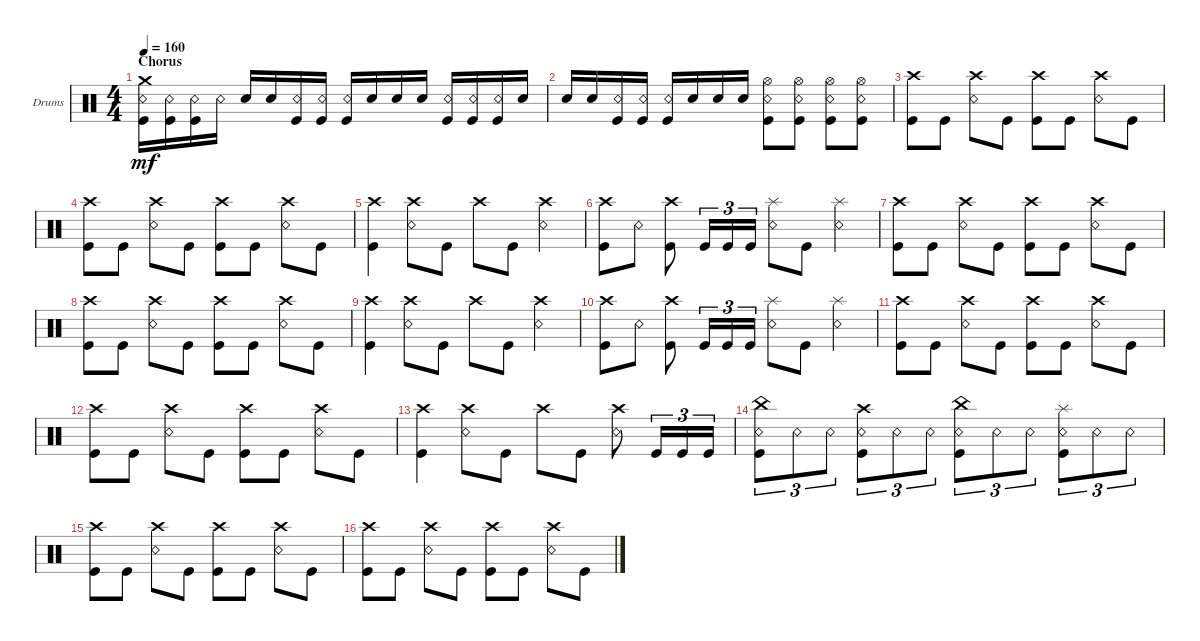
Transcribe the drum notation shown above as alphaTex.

\defaultSystemsLayout 4
\bracketExtendMode groupsimilarinstruments
\firstSystemTrackNameOrientation horizontal
\otherSystemsTrackNameOrientation horizontal
\track ("Drumkit" "Drums") {instrument percussion}
\staff {score}
\articulation defaults
\ts (4 4)
\section ("" "Chorus")
\tempo 160
\clef neutral
\ks c
("Snare (rim shot)" "Kick (hit)" "Crash medium (hit)").16{dy mf} ("Snare (rim shot)" "Kick (hit)").16 ("Snare (rim shot)" "Kick (hit)").16 "Snare (rim shot)".16 "Snare (hit) 2".16 "Snare (hit) 2".16 ("Snare (rim shot)" "Kick (hit)").16 ("Snare (rim shot)" "Kick (hit)").16 ("Snare (rim shot)" "Kick (hit)").16 "Snare (hit) 2".16 "Snare (hit) 2".16 "Snare (hit) 2".16 ("Snare (rim shot)" "Kick (hit)").16 ("Snare (rim shot)" "Kick (hit)").16 ("Snare (rim shot)" "Kick (hit)").16 "Snare (hit) 2".16 |
"Snare (hit) 2".16 "Snare (hit) 2".16 ("Snare (rim shot)" "Kick (hit)").16 ("Snare (rim shot)" "Kick (hit)").16 ("Snare (rim shot)" "Kick (hit)").16 "Snare (hit) 2".16 "Snare (hit) 2".16 "Snare (hit) 2".16 ("Snare (rim shot)" "Kick (hit)" "Hi-Hat (open)").8 ("Snare (rim shot)" "Kick (hit)" "Hi-Hat (open)").8 ("Snare (rim shot)" "Kick (hit)" "Hi-Hat (open)").8 ("Snare (rim shot)" "Kick (hit)" "Hi-Hat (open)").8 |
("Kick (hit)" "Crash high (hit)").8 "Kick (hit)".8 ("Snare (rim shot)" "Crash high (hit)").8 "Kick (hit)".8 ("Kick (hit)" "Crash high (hit)").8 "Kick (hit)".8 ("Snare (rim shot)" "Crash high (hit)").8 "Kick (hit)".8 |
("Kick (hit)" "Crash high (hit)").8 "Kick (hit)".8 ("Snare (rim shot)" "Crash high (hit)").8 "Kick (hit)".8 ("Kick (hit)" "Crash high (hit)").8 "Kick (hit)".8 ("Snare (rim shot)" "Crash high (hit)").8 "Kick (hit)".8 |
("Kick (hit)" "Crash high (hit)").4 ("Snare (rim shot)" "Crash high (hit)").8 "Kick (hit)".8 "Crash high (hit)".8 "Kick (hit)".8 ("Snare (rim shot)" "Crash high (hit)").4 |
("Kick (hit)" "Crash high (hit)").8 "Snare (rim shot)".8 ("Kick (hit)" "Crash high (hit)").8 "Kick (hit)".16{tu (3 2)} "Kick (hit)".16{tu (3 2)} "Kick (hit)".16{tu (3 2)} ("Snare (rim shot)" "Splash (hit)").8 "Kick (hit)".8 ("Snare (rim shot)" "Splash (hit)").4 |
("Kick (hit)" "Crash high (hit)").8 "Kick (hit)".8 ("Snare (rim shot)" "Crash high (hit)").8 "Kick (hit)".8 ("Kick (hit)" "Crash high (hit)").8 "Kick (hit)".8 ("Snare (rim shot)" "Crash high (hit)").8 "Kick (hit)".8 |
("Kick (hit)" "Crash high (hit)").8 "Kick (hit)".8 ("Snare (rim shot)" "Crash high (hit)").8 "Kick (hit)".8 ("Kick (hit)" "Crash high (hit)").8 "Kick (hit)".8 ("Snare (rim shot)" "Crash high (hit)").8 "Kick (hit)".8 |
("Kick (hit)" "Crash high (hit)").4 ("Snare (rim shot)" "Crash high (hit)").8 "Kick (hit)".8 "Crash high (hit)".8 "Kick (hit)".8 ("Snare (rim shot)" "Crash high (hit)").4 |
("Kick (hit)" "Crash high (hit)").8 "Snare (rim shot)".8 ("Kick (hit)" "Crash high (hit)").8 "Kick (hit)".16{tu (3 2)} "Kick (hit)".16{tu (3 2)} "Kick (hit)".16{tu (3 2)} ("Snare (rim shot)" "Splash (hit)").8 "Kick (hit)".8 ("Snare (rim shot)" "Splash (hit)").4 |
("Kick (hit)" "Crash high (hit)").8 "Kick (hit)".8 ("Snare (rim shot)" "Crash high (hit)").8 "Kick (hit)".8 ("Kick (hit)" "Crash high (hit)").8 "Kick (hit)".8 ("Snare (rim shot)" "Crash high (hit)").8 "Kick (hit)".8 |
("Kick (hit)" "Crash high (hit)").8 "Kick (hit)".8 ("Snare (rim shot)" "Crash high (hit)").8 "Kick (hit)".8 ("Kick (hit)" "Crash high (hit)").8 "Kick (hit)".8 ("Snare (rim shot)" "Crash high (hit)").8 "Kick (hit)".8 |
("Kick (hit)" "Crash high (hit)").4 ("Snare (rim shot)" "Crash high (hit)").8 "Kick (hit)".8 "Crash high (hit)".8 "Kick (hit)".8 ("Snare (rim shot)" "Crash high (hit)").8 "Kick (hit)".16{tu (3 2)} "Kick (hit)".16{tu (3 2)} "Kick (hit)".16{tu (3 2)} |
("Kick (hit)" "China (hit)" "Snare (rim shot)").8{tu (3 2)} "Snare (rim shot)".8{tu (3 2)} "Snare (rim shot)".8{tu (3 2)} ("Snare (rim shot)" "Crash high (hit)" "Kick (hit)").8{tu (3 2)} "Snare (rim shot)".8{tu (3 2)} "Snare (rim shot)".8{tu (3 2)} ("Snare (rim shot)" "China (hit)" "Kick (hit)").8{tu (3 2)} "Snare (rim shot)".8{tu (3 2)} "Snare (rim shot)".8{tu (3 2)} ("Snare (rim shot)" "Splash (hit)" "Kick (hit)").8{tu (3 2)} "Snare (rim shot)".8{tu (3 2)} "Snare (rim shot)".8{tu (3 2)} |
("Kick (hit)" "Crash high (hit)").8 "Kick (hit)".8 ("Snare (rim shot)" "Crash high (hit)").8 "Kick (hit)".8 ("Kick (hit)" "Crash high (hit)").8 "Kick (hit)".8 ("Snare (rim shot)" "Crash high (hit)").8 "Kick (hit)".8 |
("Kick (hit)" "Crash high (hit)").8 "Kick (hit)".8 ("Snare (rim shot)" "Crash high (hit)").8 "Kick (hit)".8 ("Kick (hit)" "Crash high (hit)").8 "Kick (hit)".8 ("Snare (rim shot)" "Crash high (hit)").8 "Kick (hit)".8
